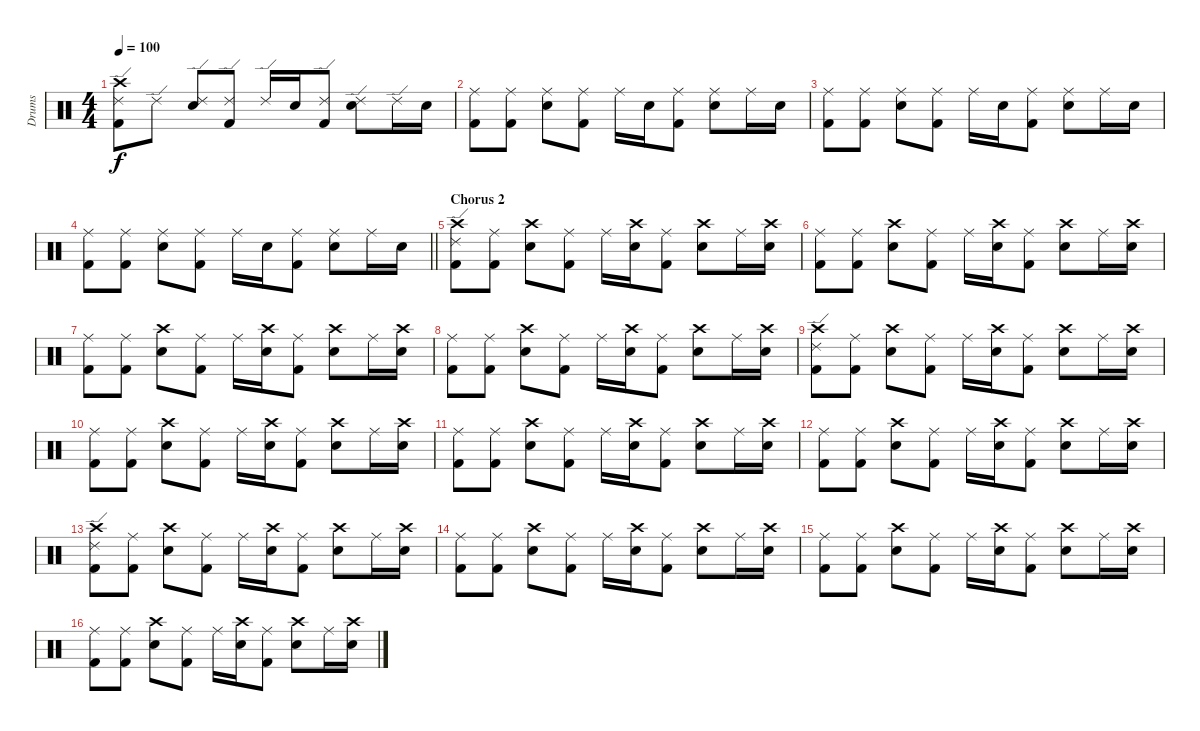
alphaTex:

\track ("Drums" "Drums") {instrument percussion}
\staff {score}
\articulation defaults
\ts (4 4)
\tempo 100
\clef neutral
\ks c
("Crash high (hit)" "Ride (edge) 2" "Kick (hit) 2").8{dy f} "Ride (edge) 2".8 ("Electric Snare (hit)" "Ride (edge) 2").8 ("Ride (edge) 2" "Kick (hit) 2").8 "Ride (edge) 2".16 "Electric Snare (hit)".16 ("Ride (edge) 2" "Kick (hit) 2").8 ("Electric Snare (hit)" "Ride (edge) 2").8 "Ride (edge) 2".16 "Electric Snare (hit)".16 |
("Ride (middle)" "Kick (hit) 2").8 ("Ride (middle)" "Kick (hit) 2").8 ("Electric Snare (hit)" "Ride (middle)").8 ("Ride (middle)" "Kick (hit) 2").8 "Ride (middle)".16 "Electric Snare (hit)".16 ("Ride (middle)" "Kick (hit) 2").8 ("Electric Snare (hit)" "Ride (middle)").8 "Ride (middle)".16 "Electric Snare (hit)".16 |
("Ride (middle)" "Kick (hit) 2").8 ("Ride (middle)" "Kick (hit) 2").8 ("Electric Snare (hit)" "Ride (middle)").8 ("Ride (middle)" "Kick (hit) 2").8 "Ride (middle)".16 "Electric Snare (hit)".16 ("Ride (middle)" "Kick (hit) 2").8 ("Electric Snare (hit)" "Ride (middle)").8 "Ride (middle)".16 "Electric Snare (hit)".16 |
\barLineRight lightlight
("Ride (middle)" "Kick (hit) 2").8 ("Ride (middle)" "Kick (hit) 2").8 ("Electric Snare (hit)" "Ride (middle)").8 ("Ride (middle)" "Kick (hit) 2").8 "Ride (middle)".16 "Electric Snare (hit)".16 ("Ride (middle)" "Kick (hit) 2").8 ("Electric Snare (hit)" "Ride (middle)").8 "Ride (middle)".16 "Electric Snare (hit)".16 |
\section ("" "Chorus 2")
("Crash high (hit)" "Ride (edge) 2" "Kick (hit) 2").8 ("Ride (middle)" "Kick (hit) 2").8 ("Electric Snare (hit)" "Crash high (hit)").8 ("Ride (middle)" "Kick (hit) 2").8 "Ride (middle)".16 ("Electric Snare (hit)" "Crash high (hit)").16 ("Ride (middle)" "Kick (hit) 2").8 ("Electric Snare (hit)" "Crash high (hit)").8 "Ride (middle)".16 ("Electric Snare (hit)" "Crash high (hit)").16 |
("Ride (middle)" "Kick (hit) 2").8 ("Ride (middle)" "Kick (hit) 2").8 ("Electric Snare (hit)" "Crash high (hit)").8 ("Ride (middle)" "Kick (hit) 2").8 "Ride (middle)".16 ("Electric Snare (hit)" "Crash high (hit)").16 ("Ride (middle)" "Kick (hit) 2").8 ("Electric Snare (hit)" "Crash high (hit)").8 "Ride (middle)".16 ("Electric Snare (hit)" "Crash high (hit)").16 |
("Ride (middle)" "Kick (hit) 2").8 ("Ride (middle)" "Kick (hit) 2").8 ("Electric Snare (hit)" "Crash high (hit)").8 ("Ride (middle)" "Kick (hit) 2").8 "Ride (middle)".16 ("Electric Snare (hit)" "Crash high (hit)").16 ("Ride (middle)" "Kick (hit) 2").8 ("Electric Snare (hit)" "Crash high (hit)").8 "Ride (middle)".16 ("Electric Snare (hit)" "Crash high (hit)").16 |
("Ride (middle)" "Kick (hit) 2").8 ("Ride (middle)" "Kick (hit) 2").8 ("Electric Snare (hit)" "Crash high (hit)").8 ("Ride (middle)" "Kick (hit) 2").8 "Ride (middle)".16 ("Electric Snare (hit)" "Crash high (hit)").16 ("Ride (middle)" "Kick (hit) 2").8 ("Electric Snare (hit)" "Crash high (hit)").8 "Ride (middle)".16 ("Electric Snare (hit)" "Crash high (hit)").16 |
("Crash high (hit)" "Ride (edge) 2" "Kick (hit) 2").8 ("Ride (middle)" "Kick (hit) 2").8 ("Electric Snare (hit)" "Crash high (hit)").8 ("Ride (middle)" "Kick (hit) 2").8 "Ride (middle)".16 ("Electric Snare (hit)" "Crash high (hit)").16 ("Ride (middle)" "Kick (hit) 2").8 ("Electric Snare (hit)" "Crash high (hit)").8 "Ride (middle)".16 ("Electric Snare (hit)" "Crash high (hit)").16 |
("Ride (middle)" "Kick (hit) 2").8 ("Ride (middle)" "Kick (hit) 2").8 ("Electric Snare (hit)" "Crash high (hit)").8 ("Ride (middle)" "Kick (hit) 2").8 "Ride (middle)".16 ("Electric Snare (hit)" "Crash high (hit)").16 ("Ride (middle)" "Kick (hit) 2").8 ("Electric Snare (hit)" "Crash high (hit)").8 "Ride (middle)".16 ("Electric Snare (hit)" "Crash high (hit)").16 |
("Ride (middle)" "Kick (hit) 2").8 ("Ride (middle)" "Kick (hit) 2").8 ("Electric Snare (hit)" "Crash high (hit)").8 ("Ride (middle)" "Kick (hit) 2").8 "Ride (middle)".16 ("Electric Snare (hit)" "Crash high (hit)").16 ("Ride (middle)" "Kick (hit) 2").8 ("Electric Snare (hit)" "Crash high (hit)").8 "Ride (middle)".16 ("Electric Snare (hit)" "Crash high (hit)").16 |
("Ride (middle)" "Kick (hit) 2").8 ("Ride (middle)" "Kick (hit) 2").8 ("Electric Snare (hit)" "Crash high (hit)").8 ("Ride (middle)" "Kick (hit) 2").8 "Ride (middle)".16 ("Electric Snare (hit)" "Crash high (hit)").16 ("Ride (middle)" "Kick (hit) 2").8 ("Electric Snare (hit)" "Crash high (hit)").8 "Ride (middle)".16 ("Electric Snare (hit)" "Crash high (hit)").16 |
("Crash high (hit)" "Ride (edge) 2" "Kick (hit) 2").8 ("Ride (middle)" "Kick (hit) 2").8 ("Electric Snare (hit)" "Crash high (hit)").8 ("Ride (middle)" "Kick (hit) 2").8 "Ride (middle)".16 ("Electric Snare (hit)" "Crash high (hit)").16 ("Ride (middle)" "Kick (hit) 2").8 ("Electric Snare (hit)" "Crash high (hit)").8 "Ride (middle)".16 ("Electric Snare (hit)" "Crash high (hit)").16 |
("Ride (middle)" "Kick (hit) 2").8 ("Ride (middle)" "Kick (hit) 2").8 ("Electric Snare (hit)" "Crash high (hit)").8 ("Ride (middle)" "Kick (hit) 2").8 "Ride (middle)".16 ("Electric Snare (hit)" "Crash high (hit)").16 ("Ride (middle)" "Kick (hit) 2").8 ("Electric Snare (hit)" "Crash high (hit)").8 "Ride (middle)".16 ("Electric Snare (hit)" "Crash high (hit)").16 |
("Ride (middle)" "Kick (hit) 2").8 ("Ride (middle)" "Kick (hit) 2").8 ("Electric Snare (hit)" "Crash high (hit)").8 ("Ride (middle)" "Kick (hit) 2").8 "Ride (middle)".16 ("Electric Snare (hit)" "Crash high (hit)").16 ("Ride (middle)" "Kick (hit) 2").8 ("Electric Snare (hit)" "Crash high (hit)").8 "Ride (middle)".16 ("Electric Snare (hit)" "Crash high (hit)").16 |
("Ride (middle)" "Kick (hit) 2").8 ("Ride (middle)" "Kick (hit) 2").8 ("Electric Snare (hit)" "Crash high (hit)").8 ("Ride (middle)" "Kick (hit) 2").8 "Ride (middle)".16 ("Electric Snare (hit)" "Crash high (hit)").16 ("Ride (middle)" "Kick (hit) 2").8 ("Electric Snare (hit)" "Crash high (hit)").8 "Ride (middle)".16 ("Electric Snare (hit)" "Crash high (hit)").16
